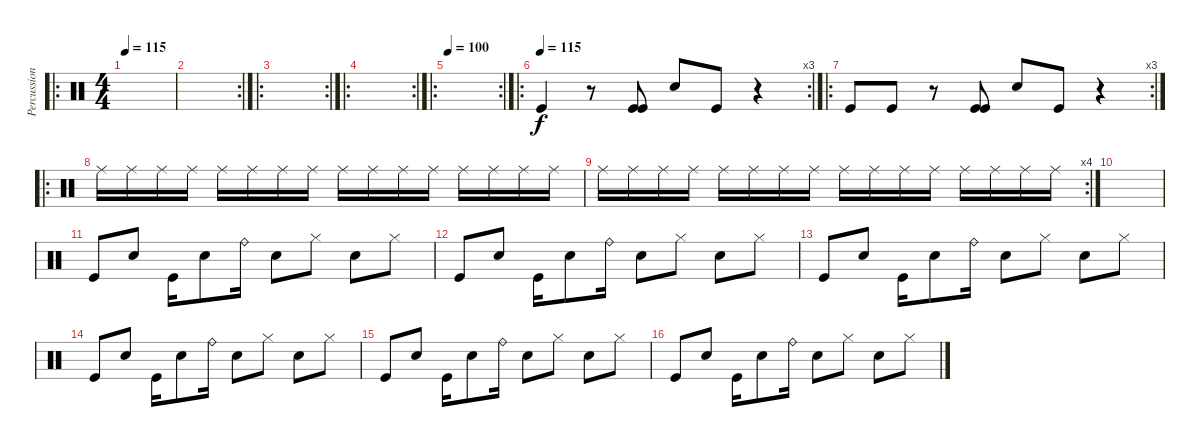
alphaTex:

\track ("Percussions" "Percussion") {instrument percussion}
\staff {score}
\articulation defaults
\ro
\ts (4 4)
\tempo 115
\clef neutral
\ks c
|
\rc 2
|
\ro
\rc 2
|
\ro
\rc 2
|
\ro
\rc 2
\tempo 100
|
\ro
\rc 3
\tempo (115)
"Kick (hit)".4 r.8 ("Kick (hit)" "Kick (hit)").8 "Electric Snare (hit)".8 "Kick (hit)".8 r.4 |
\ro
\rc 3 "Kick (hit)".8 "Kick (hit)".8
r.8 ("Kick (hit)" "Kick (hit)").8 "Electric Snare (hit)".8 "Kick (hit)".8 r.4 |
\ro "Ride (middle)".16 "Ride (middle)".16 "Ride (middle)".16 "Ride (middle)".16 "Ride (middle)".16 "Ride (middle)".16 "Ride (middle)".16 "Ride (middle)".16 "Ride (middle)".16 "Ride (middle)".16 "Ride (middle)".16 "Ride (middle)".16 "Ride (middle)".16 "Ride (middle)".16 "Ride (middle)".16 "Ride (middle)".16
|
\rc 4 "Ride (middle)".16 "Ride (middle)".16 "Ride (middle)".16 "Ride (middle)".16 "Ride (middle)".16 "Ride (middle)".16 "Ride (middle)".16 "Ride (middle)".16 "Ride (middle)".16 "Ride (middle)".16 "Ride (middle)".16 "Ride (middle)".16 "Ride (middle)".16 "Ride (middle)".16 "Ride (middle)".16 "Ride (middle)".16
|
|
"Kick (hit)".8 "Electric Snare (hit)".8 "Kick (hit)".16 "Electric Snare (hit)".8 "Ride (bell)".16 "Electric Snare (hit)".8 "Hi-Hat (closed)".8 "Electric Snare (hit)".8 "Hi-Hat (closed)".8 |
"Kick (hit)".8 "Electric Snare (hit)".8 "Kick (hit)".16 "Electric Snare (hit)".8 "Ride (bell)".16 "Electric Snare (hit)".8 "Hi-Hat (closed)".8 "Electric Snare (hit)".8 "Hi-Hat (closed)".8 |
"Kick (hit)".8 "Electric Snare (hit)".8 "Kick (hit)".16 "Electric Snare (hit)".8 "Ride (bell)".16 "Electric Snare (hit)".8 "Hi-Hat (closed)".8 "Electric Snare (hit)".8 "Hi-Hat (closed)".8 |
"Kick (hit)".8 "Electric Snare (hit)".8 "Kick (hit)".16 "Electric Snare (hit)".8 "Ride (bell)".16 "Electric Snare (hit)".8 "Hi-Hat (closed)".8 "Electric Snare (hit)".8 "Hi-Hat (closed)".8 |
"Kick (hit)".8 "Electric Snare (hit)".8 "Kick (hit)".16 "Electric Snare (hit)".8 "Ride (bell)".16 "Electric Snare (hit)".8 "Hi-Hat (closed)".8 "Electric Snare (hit)".8 "Hi-Hat (closed)".8 |
"Kick (hit)".8 "Electric Snare (hit)".8 "Kick (hit)".16 "Electric Snare (hit)".8 "Ride (bell)".16 "Electric Snare (hit)".8 "Hi-Hat (closed)".8 "Electric Snare (hit)".8 "Hi-Hat (closed)".8
